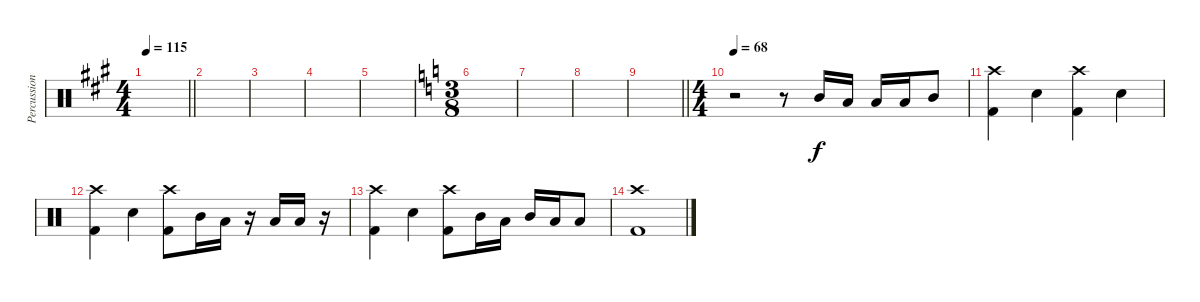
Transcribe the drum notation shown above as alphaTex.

\track ("Percussion" "Percussion") {instrument percussion}
\staff {score}
\articulation defaults
\ts (4 4)
\tempo 115
\clef neutral
\barLineRight lightlight
\ks a
|
|
|
|
|
\ts (3 8)
\ks c
|
|
|
\barLineRight lightlight
|
\ts (4 4)
\tempo 68
r.2{volume 12} r.8 "Mid Tom (hit)".16 "Low Tom (hit)".16 "Low Floor Tom (hit)".16 "Low Tom (hit)".16 "Mid Tom (hit)".8 |
("Crash high (hit)" "Kick (hit) 2").4 "Snare (hit) 2".4 ("Crash high (hit)" "Kick (hit) 2").4 "Snare (hit) 2".4 |
("Crash high (hit)" "Kick (hit) 2").4 "Snare (hit) 2".4 ("Crash high (hit)" "Kick (hit) 2").8 "Mid Tom (hit)".16 "Low Floor Tom (hit)".16 r.16 "Low Tom (hit)".16 "Low Tom (hit)".16 r.16 |
("Crash high (hit)" "Kick (hit) 2").4 "Snare (hit) 2".4 ("Crash high (hit)" "Kick (hit) 2").8 "Mid Tom (hit)".16 "Low Floor Tom (hit)".16 "Mid Tom (hit)".16 "Low Tom (hit)".16 "Low Tom (hit)".8 |
("Crash high (hit)" "Kick (hit) 2").1
